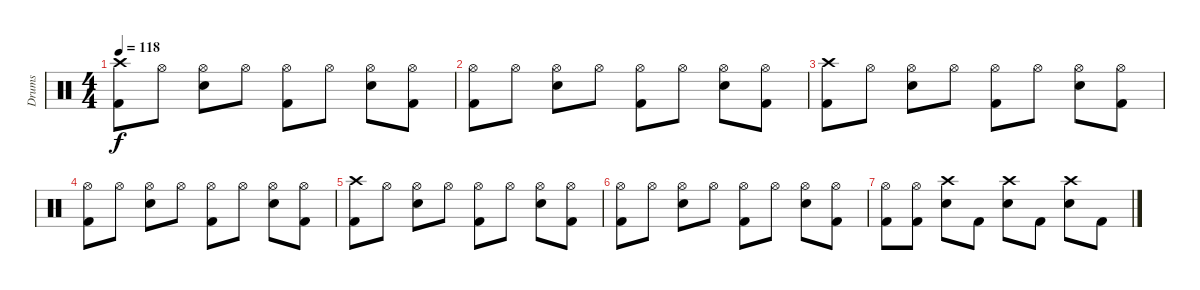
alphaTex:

\track ("Drums" "Drums") {instrument percussion}
\staff {score}
\articulation defaults
\ts (4 4)
\tempo 118
\clef neutral
\ks c
("Crash high (hit)" "Kick (hit) 2").8{dy f volume 8} "Hi-Hat (open)".8 ("Hi-Hat (open)" "Snare (hit) 2").8 "Hi-Hat (open)".8 ("Hi-Hat (open)" "Kick (hit) 2").8 "Hi-Hat (open)".8 ("Hi-Hat (open)" "Snare (hit) 2").8 ("Hi-Hat (open)" "Kick (hit) 2").8 |
("Hi-Hat (open)" "Kick (hit) 2").8{volume 7} "Hi-Hat (open)".8 ("Hi-Hat (open)" "Snare (hit) 2").8 "Hi-Hat (open)".8 ("Hi-Hat (open)" "Kick (hit) 2").8 "Hi-Hat (open)".8 ("Hi-Hat (open)" "Snare (hit) 2").8 ("Hi-Hat (open)" "Kick (hit) 2").8 |
("Crash high (hit)" "Kick (hit) 2").8{volume 6} "Hi-Hat (open)".8 ("Hi-Hat (open)" "Snare (hit) 2").8 "Hi-Hat (open)".8 ("Hi-Hat (open)" "Kick (hit) 2").8 "Hi-Hat (open)".8 ("Hi-Hat (open)" "Snare (hit) 2").8 ("Hi-Hat (open)" "Kick (hit) 2").8 |
("Hi-Hat (open)" "Kick (hit) 2").8{volume 5} "Hi-Hat (open)".8 ("Hi-Hat (open)" "Snare (hit) 2").8 "Hi-Hat (open)".8 ("Hi-Hat (open)" "Kick (hit) 2").8 "Hi-Hat (open)".8 ("Hi-Hat (open)" "Snare (hit) 2").8 ("Hi-Hat (open)" "Kick (hit) 2").8 |
("Crash high (hit)" "Kick (hit) 2").8{volume 4} "Hi-Hat (open)".8 ("Hi-Hat (open)" "Snare (hit) 2").8 "Hi-Hat (open)".8 ("Hi-Hat (open)" "Kick (hit) 2").8 "Hi-Hat (open)".8 ("Hi-Hat (open)" "Snare (hit) 2").8 ("Hi-Hat (open)" "Kick (hit) 2").8 |
("Hi-Hat (open)" "Kick (hit) 2").8{volume 3} "Hi-Hat (open)".8 ("Hi-Hat (open)" "Snare (hit) 2").8 "Hi-Hat (open)".8 ("Hi-Hat (open)" "Kick (hit) 2").8 "Hi-Hat (open)".8 ("Hi-Hat (open)" "Snare (hit) 2").8 ("Hi-Hat (open)" "Kick (hit) 2").8 |
("Hi-Hat (open)" "Kick (hit) 2").8{volume 2} ("Hi-Hat (open)" "Kick (hit) 2").8 ("Crash high (hit)" "Snare (hit) 2").8 "Kick (hit) 2".8 ("Crash high (hit)" "Snare (hit) 2").8 "Kick (hit) 2".8 ("Crash high (hit)" "Snare (hit) 2").8 "Kick (hit) 2".8
